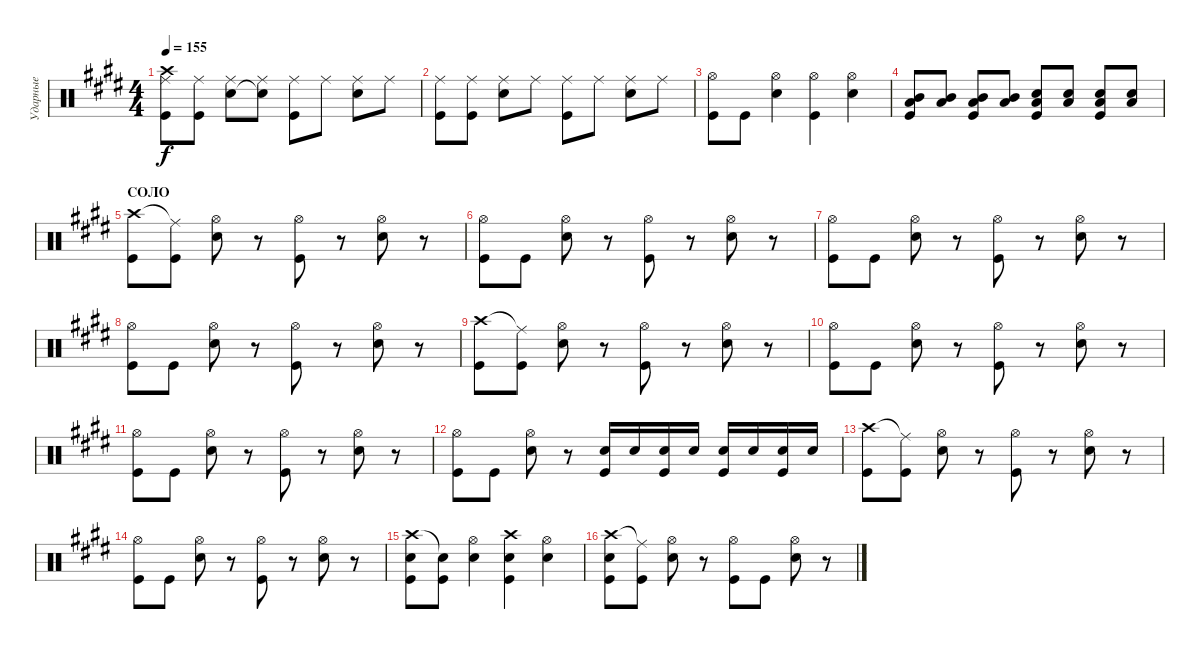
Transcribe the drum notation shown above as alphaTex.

\track ("Ударные" "Ударные") {instrument percussion}
\staff {score}
\articulation defaults
\ts (4 4)
\tempo 155
\clef neutral
\ks e
("Ride (middle)" "Crash high (hit)" "Kick (hit)").8{dy f} ("Ride (middle)" "Kick (hit)").8 ("Ride (middle)" "Snare (hit) 2").8 ("Ride (middle)" "Snare (hit)"{t}).8 ("Ride (middle)" "Kick (hit)").8 "Ride (middle)".8 ("Ride (middle)" "Snare (hit) 2").8 "Ride (middle)".8 |
("Ride (middle)" "Kick (hit)").8 ("Ride (middle)" "Kick (hit)").8 ("Ride (middle)" "Snare (hit) 2").8 "Ride (middle)".8 ("Ride (middle)" "Kick (hit)").8 "Ride (middle)".8 ("Ride (middle)" "Snare (hit) 2").8 "Ride (middle)".8 |
("Hi-Hat (open)" "Kick (hit)").8 "Kick (hit)".8 ("Hi-Hat (open)" "Snare (hit) 2").4 ("Hi-Hat (open)" "Kick (hit)").4 ("Hi-Hat (open)" "Snare (hit) 2").4 |
("Mid Tom (hit)" "Low Tom (hit)" "Kick (hit)").8 ("Mid Tom (hit)" "Low Tom (hit)").8 ("Mid Tom (hit)" "Low Tom (hit)" "Kick (hit)").8 ("Mid Tom (hit)" "Low Tom (hit)").8 ("Snare (hit) 2" "Low Tom (hit)" "Kick (hit)").8 ("Snare (hit) 2" "Low Tom (hit)").8 ("Snare (hit) 2" "Low Tom (hit)" "Kick (hit)").8 ("Snare (hit) 2" "Low Tom (hit)").8 |
\section ("" "СОЛО")
("Crash high (hit)" "Kick (hit)").8 ("Ride (middle)"{t} "Kick (hit)").8 ("Hi-Hat (open)" "Snare (hit) 2").8 r.8 ("Hi-Hat (open)" "Kick (hit)").8 r.8 ("Hi-Hat (open)" "Snare (hit) 2").8 r.8 |
("Hi-Hat (open)" "Kick (hit)").8 "Kick (hit)".8 ("Hi-Hat (open)" "Snare (hit) 2").8 r.8 ("Hi-Hat (open)" "Kick (hit)").8 r.8 ("Hi-Hat (open)" "Snare (hit) 2").8 r.8 |
("Hi-Hat (open)" "Kick (hit)").8 "Kick (hit)".8 ("Hi-Hat (open)" "Snare (hit) 2").8 r.8 ("Hi-Hat (open)" "Kick (hit)").8 r.8 ("Hi-Hat (open)" "Snare (hit) 2").8 r.8 |
("Hi-Hat (open)" "Kick (hit)").8 "Kick (hit)".8 ("Hi-Hat (open)" "Snare (hit) 2").8 r.8 ("Hi-Hat (open)" "Kick (hit)").8 r.8 ("Hi-Hat (open)" "Snare (hit) 2").8 r.8 |
("Crash high (hit)" "Kick (hit)").8 ("Ride (middle)"{t} "Kick (hit)").8 ("Hi-Hat (open)" "Snare (hit) 2").8 r.8 ("Hi-Hat (open)" "Kick (hit)").8 r.8 ("Hi-Hat (open)" "Snare (hit) 2").8 r.8 |
("Hi-Hat (open)" "Kick (hit)").8 "Kick (hit)".8 ("Hi-Hat (open)" "Snare (hit) 2").8 r.8 ("Hi-Hat (open)" "Kick (hit)").8 r.8 ("Hi-Hat (open)" "Snare (hit) 2").8 r.8 |
("Hi-Hat (open)" "Kick (hit)").8 "Kick (hit)".8 ("Hi-Hat (open)" "Snare (hit) 2").8 r.8 ("Hi-Hat (open)" "Kick (hit)").8 r.8 ("Hi-Hat (open)" "Snare (hit) 2").8 r.8 |
("Hi-Hat (open)" "Kick (hit)").8 "Kick (hit)".8 ("Hi-Hat (open)" "Snare (hit) 2").8 r.8 ("Snare (hit) 2" "Kick (hit)").16 "Snare (hit) 2".16 ("Snare (hit) 2" "Kick (hit)").16 "Snare (hit) 2".16 ("Snare (hit) 2" "Kick (hit)").16 "Snare (hit) 2".16 ("Snare (hit) 2" "Kick (hit)").16 "Snare (hit) 2".16 |
("Crash high (hit)" "Kick (hit)").8 ("Ride (middle)"{t} "Kick (hit)").8 ("Hi-Hat (open)" "Snare (hit) 2").8 r.8 ("Hi-Hat (open)" "Kick (hit)").8 r.8 ("Hi-Hat (open)" "Snare (hit) 2").8 r.8 |
("Hi-Hat (open)" "Kick (hit)").8 "Kick (hit)".8 ("Hi-Hat (open)" "Snare (hit) 2").8 r.8 ("Hi-Hat (open)" "Kick (hit)").8 r.8 ("Hi-Hat (open)" "Snare (hit) 2").8 r.8 |
("Crash high (hit)" "Snare (hit) 2" "Kick (hit)").8 ("Snare (hit)"{t} "Kick (hit)").8 ("Hi-Hat (open)" "Snare (hit) 2").4 ("Crash high (hit)" "Snare (hit) 2" "Kick (hit)").4 ("Hi-Hat (open)" "Snare (hit) 2").4 |
("Crash high (hit)" "Snare (hit) 2" "Kick (hit)").8 ("Ride (middle)"{t} "Kick (hit)").8 ("Hi-Hat (open)" "Snare (hit) 2").8 r.8 ("Hi-Hat (open)" "Kick (hit)").8 "Kick (hit)".8 ("Hi-Hat (open)" "Snare (hit) 2").8 r.8
